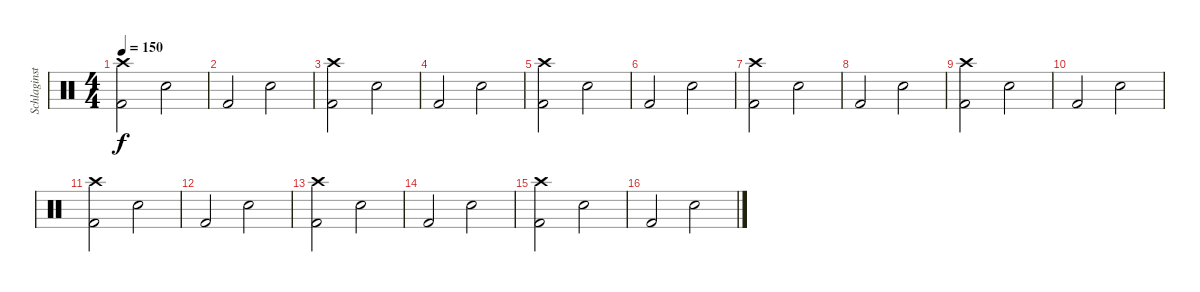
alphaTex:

\track ("Schlaginstrumente - Auswahl" "Schlaginst") {instrument percussion}
\staff {score}
\articulation defaults
\ts (4 4)
\tempo 150
\clef neutral
\ks c
("Crash high (hit)" "Kick (hit) 2").2{dy f} "Snare (hit) 2".2 |
"Kick (hit) 2".2 "Snare (hit) 2".2 |
("Crash high (hit)" "Kick (hit) 2").2 "Snare (hit) 2".2 |
"Kick (hit) 2".2 "Snare (hit) 2".2 |
("Crash high (hit)" "Kick (hit) 2").2 "Snare (hit) 2".2 |
"Kick (hit) 2".2 "Snare (hit) 2".2 |
("Crash high (hit)" "Kick (hit) 2").2 "Snare (hit) 2".2 |
"Kick (hit) 2".2 "Snare (hit) 2".2 |
("Crash high (hit)" "Kick (hit) 2").2 "Snare (hit) 2".2 |
"Kick (hit) 2".2 "Snare (hit) 2".2 |
("Crash high (hit)" "Kick (hit) 2").2 "Snare (hit) 2".2 |
"Kick (hit) 2".2 "Snare (hit) 2".2 |
("Crash high (hit)" "Kick (hit) 2").2 "Snare (hit) 2".2 |
"Kick (hit) 2".2 "Snare (hit) 2".2 |
("Crash high (hit)" "Kick (hit) 2").2 "Snare (hit) 2".2 |
"Kick (hit) 2".2 "Snare (hit) 2".2
